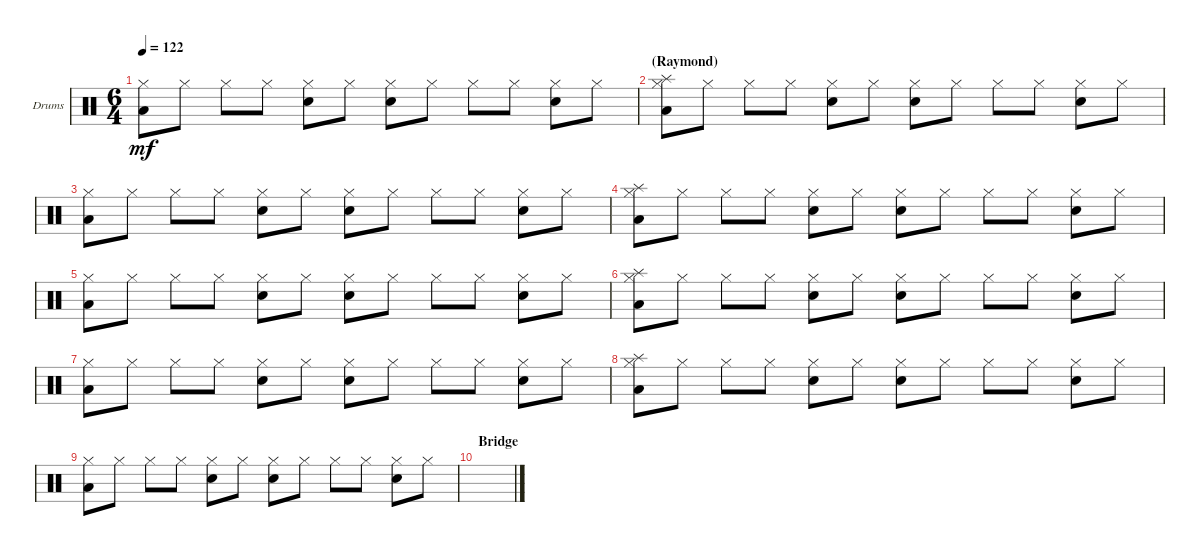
\bracketExtendMode groupsimilarinstruments
\firstSystemTrackNameOrientation horizontal
\otherSystemsTrackNameOrientation horizontal
\track ("Drumkit" "Drums") {instrument percussion}
\staff {score}
\articulation defaults
\ts (6 4)
\tempo 122
\clef neutral
\ks c
("Hi-Hat (closed)" "Low Tom (hit)").8{dy mf} "Hi-Hat (closed)".8 "Hi-Hat (closed)".8 "Hi-Hat (closed)".8 ("Snare (hit) 2" "Hi-Hat (closed)").8 "Hi-Hat (closed)".8 ("Hi-Hat (closed)" "Snare (hit) 2").8 "Hi-Hat (closed)".8 "Hi-Hat (closed)".8 "Hi-Hat (closed)".8 ("Hi-Hat (closed)" "Snare (hit) 2").8 "Hi-Hat (closed)".8 |
\section ("" "(Raymond)")
("Hi-Hat (closed)" "Splash (hit)" "Low Tom (hit)").8 "Hi-Hat (closed)".8 "Hi-Hat (closed)".8 "Hi-Hat (closed)".8 ("Snare (hit) 2" "Hi-Hat (closed)").8 "Hi-Hat (closed)".8 ("Hi-Hat (closed)" "Snare (hit) 2").8 "Hi-Hat (closed)".8 "Hi-Hat (closed)".8 "Hi-Hat (closed)".8 ("Hi-Hat (closed)" "Snare (hit) 2").8 "Hi-Hat (closed)".8 |
("Hi-Hat (closed)" "Low Tom (hit)").8 "Hi-Hat (closed)".8 "Hi-Hat (closed)".8 "Hi-Hat (closed)".8 ("Snare (hit) 2" "Hi-Hat (closed)").8 "Hi-Hat (closed)".8 ("Hi-Hat (closed)" "Snare (hit) 2").8 "Hi-Hat (closed)".8 "Hi-Hat (closed)".8 "Hi-Hat (closed)".8 ("Hi-Hat (closed)" "Snare (hit) 2").8 "Hi-Hat (closed)".8 |
("Hi-Hat (closed)" "Splash (hit)" "Low Tom (hit)").8 "Hi-Hat (closed)".8 "Hi-Hat (closed)".8 "Hi-Hat (closed)".8 ("Snare (hit) 2" "Hi-Hat (closed)").8 "Hi-Hat (closed)".8 ("Hi-Hat (closed)" "Snare (hit) 2").8 "Hi-Hat (closed)".8 "Hi-Hat (closed)".8 "Hi-Hat (closed)".8 ("Hi-Hat (closed)" "Snare (hit) 2").8 "Hi-Hat (closed)".8 |
("Hi-Hat (closed)" "Low Tom (hit)").8 "Hi-Hat (closed)".8 "Hi-Hat (closed)".8 "Hi-Hat (closed)".8 ("Snare (hit) 2" "Hi-Hat (closed)").8 "Hi-Hat (closed)".8 ("Hi-Hat (closed)" "Snare (hit) 2").8 "Hi-Hat (closed)".8 "Hi-Hat (closed)".8 "Hi-Hat (closed)".8 ("Hi-Hat (closed)" "Snare (hit) 2").8 "Hi-Hat (closed)".8 |
("Hi-Hat (closed)" "Splash (hit)" "Low Tom (hit)").8 "Hi-Hat (closed)".8 "Hi-Hat (closed)".8 "Hi-Hat (closed)".8 ("Snare (hit) 2" "Hi-Hat (closed)").8 "Hi-Hat (closed)".8 ("Hi-Hat (closed)" "Snare (hit) 2").8 "Hi-Hat (closed)".8 "Hi-Hat (closed)".8 "Hi-Hat (closed)".8 ("Hi-Hat (closed)" "Snare (hit) 2").8 "Hi-Hat (closed)".8 |
("Hi-Hat (closed)" "Low Tom (hit)").8 "Hi-Hat (closed)".8 "Hi-Hat (closed)".8 "Hi-Hat (closed)".8 ("Snare (hit) 2" "Hi-Hat (closed)").8 "Hi-Hat (closed)".8 ("Hi-Hat (closed)" "Snare (hit) 2").8 "Hi-Hat (closed)".8 "Hi-Hat (closed)".8 "Hi-Hat (closed)".8 ("Hi-Hat (closed)" "Snare (hit) 2").8 "Hi-Hat (closed)".8 |
("Hi-Hat (closed)" "Splash (hit)" "Low Tom (hit)").8 "Hi-Hat (closed)".8 "Hi-Hat (closed)".8 "Hi-Hat (closed)".8 ("Snare (hit) 2" "Hi-Hat (closed)").8 "Hi-Hat (closed)".8 ("Hi-Hat (closed)" "Snare (hit) 2").8 "Hi-Hat (closed)".8 "Hi-Hat (closed)".8 "Hi-Hat (closed)".8 ("Hi-Hat (closed)" "Snare (hit) 2").8 "Hi-Hat (closed)".8 |
("Hi-Hat (closed)" "Low Tom (hit)").8 "Hi-Hat (closed)".8 "Hi-Hat (closed)".8 "Hi-Hat (closed)".8 ("Snare (hit) 2" "Hi-Hat (closed)").8 "Hi-Hat (closed)".8 ("Hi-Hat (closed)" "Snare (hit) 2").8 "Hi-Hat (closed)".8 "Hi-Hat (closed)".8 "Hi-Hat (closed)".8 ("Hi-Hat (closed)" "Snare (hit) 2").8 "Hi-Hat (closed)".8 |
\section ("" "Bridge")
